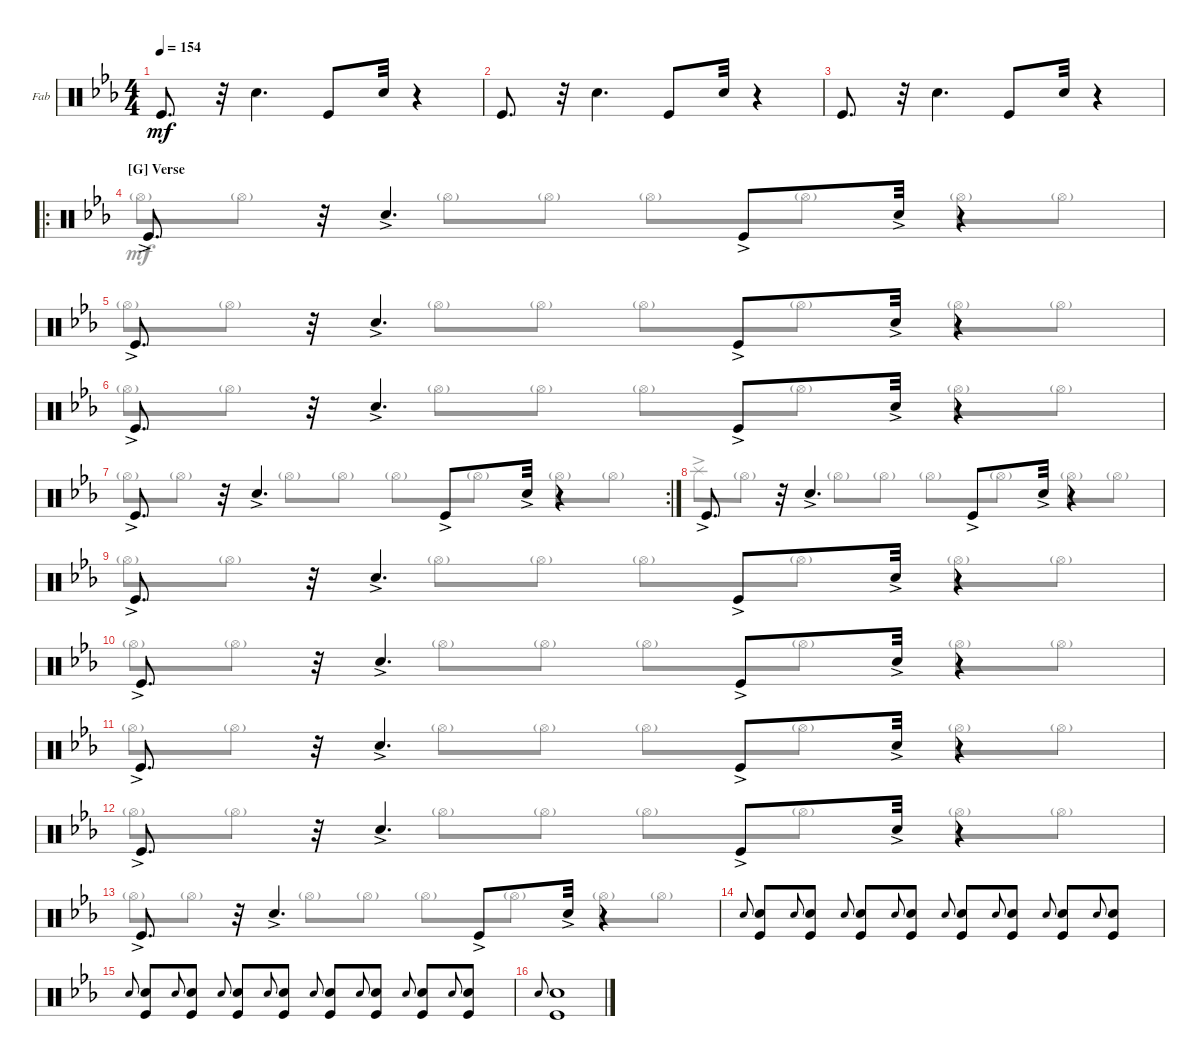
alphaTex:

\defaultSystemsLayout 4
\bracketExtendMode groupsimilarinstruments
\firstSystemTrackNameOrientation horizontal
\otherSystemsTrackNameOrientation horizontal
\track ("Drums" "Fab") {instrument percussion}
\staff {score}
\articulation defaults
\voice
\ts (4 4)
\tempo 154
\clef neutral
\ks eb "Kick (hit)".8{d dy mf}
r.32 "Snare (hit) 2".4{d} "Kick (hit)".8 "Snare (hit) 2".32 r.4 |
"Kick (hit)".8{d} r.32 "Snare (hit) 2".4{d} "Kick (hit)".8 "Snare (hit) 2".32 r.4 |
"Kick (hit)".8{d} r.32 "Snare (hit) 2".4{d} "Kick (hit)".8 "Snare (hit) 2".32 r.4 |
\ro
\section ("G" "Verse")
\scale
0.536768 "Kick (hit)"{ac}.8{d} r.32 "Snare (hit) 2"{ac}.4{d} "Kick (hit)"{ac}.8 "Snare (hit) 2"{ac}.32 r.4 |
\scale
0.463256 "Kick (hit)"{ac}.8{d} r.32 "Snare (hit) 2"{ac}.4{d} "Kick (hit)"{ac}.8 "Snare (hit) 2"{ac}.32 r.4 |
\scale
0.547346 "Kick (hit)"{ac}.8{d} r.32 "Snare (hit) 2"{ac}.4{d} "Kick (hit)"{ac}.8 "Snare (hit) 2"{ac}.32 r.4 |
\rc 2
\scale
0.452775 "Kick (hit)"{ac}.8{d} r.32 "Snare (hit) 2"{ac}.4{d} "Kick (hit)"{ac}.8 "Snare (hit) 2"{ac}.32 r.4 |
\scale
0.54671 "Kick (hit)"{ac}.8{d} r.32 "Snare (hit) 2"{ac}.4{d} "Kick (hit)"{ac}.8 "Snare (hit) 2"{ac}.32 r.4 |
\scale
0.453333 "Kick (hit)"{ac}.8{d} r.32 "Snare (hit) 2"{ac}.4{d} "Kick (hit)"{ac}.8 "Snare (hit) 2"{ac}.32 r.4 |
\scale
0.548185 "Kick (hit)"{ac}.8{d} r.32 "Snare (hit) 2"{ac}.4{d} "Kick (hit)"{ac}.8 "Snare (hit) 2"{ac}.32 r.4 |
\scale
0.451862 "Kick (hit)"{ac}.8{d} r.32 "Snare (hit) 2"{ac}.4{d} "Kick (hit)"{ac}.8 "Snare (hit) 2"{ac}.32 r.4 |
\scale
0.55104 "Kick (hit)"{ac}.8{d} r.32 "Snare (hit) 2"{ac}.4{d} "Kick (hit)"{ac}.8 "Snare (hit) 2"{ac}.32 r.4 |
\scale
0.449011 "Kick (hit)"{ac}.8{d} r.32 "Snare (hit) 2"{ac}.4{d} "Kick (hit)"{ac}.8 "Snare (hit) 2"{ac}.32 r.4 |
"Snare (hit) 2".8{gr onbeat} ("Snare (hit) 2" "Kick (hit)").8 "Snare (hit) 2".8{gr onbeat} ("Snare (hit) 2" "Kick (hit)").8 "Snare (hit) 2".8{gr onbeat} ("Snare (hit) 2" "Kick (hit)").8 "Snare (hit) 2".8{gr onbeat} ("Snare (hit) 2" "Kick (hit)").8 "Snare (hit) 2".8{gr onbeat} ("Snare (hit) 2" "Kick (hit)").8 "Snare (hit) 2".8{gr onbeat} ("Snare (hit) 2" "Kick (hit)").8 "Snare (hit) 2".8{gr onbeat} ("Snare (hit) 2" "Kick (hit)").8 "Snare (hit) 2".8{gr onbeat} ("Snare (hit) 2" "Kick (hit)").8 |
\scale
0.755835 "Snare (hit) 2".8{gr onbeat} ("Snare (hit) 2" "Kick (hit)").8 "Snare (hit) 2".8{gr onbeat} ("Snare (hit) 2" "Kick (hit)").8 "Snare (hit) 2".8{gr onbeat} ("Snare (hit) 2" "Kick (hit)").8 "Snare (hit) 2".8{gr onbeat} ("Snare (hit) 2" "Kick (hit)").8 "Snare (hit) 2".8{gr onbeat} ("Snare (hit) 2" "Kick (hit)").8 "Snare (hit) 2".8{gr onbeat} ("Snare (hit) 2" "Kick (hit)").8 "Snare (hit) 2".8{gr onbeat} ("Snare (hit) 2" "Kick (hit)").8 "Snare (hit) 2".8{gr onbeat} ("Snare (hit) 2" "Kick (hit)").8 |
\scale
0.243788 "Snare (hit) 2".8{gr onbeat} ("Kick (hit)" "Snare (hit) 2").1
\voice
\clef neutral
\ottava regular
\simile none
\ks eb
|
|
|
\scale
0.536768 "Hi-Hat (open)"{g}.8 "Hi-Hat (open)"{g}.8 "Hi-Hat (open)"{g}.8 "Hi-Hat (open)"{g}.8 "Hi-Hat (open)"{g}.8 "Hi-Hat (open)"{g}.8 "Hi-Hat (open)"{g}.8 "Hi-Hat (open)"{g}.8 |
\scale
0.463256 "Hi-Hat (open)"{g}.8 "Hi-Hat (open)"{g}.8 "Hi-Hat (open)"{g}.8 "Hi-Hat (open)"{g}.8 "Hi-Hat (open)"{g}.8 "Hi-Hat (open)"{g}.8 "Hi-Hat (open)"{g}.8 "Hi-Hat (open)"{g}.8 |
\scale
0.547346 "Hi-Hat (open)"{g}.8 "Hi-Hat (open)"{g}.8 "Hi-Hat (open)"{g}.8 "Hi-Hat (open)"{g}.8 "Hi-Hat (open)"{g}.8 "Hi-Hat (open)"{g}.8 "Hi-Hat (open)"{g}.8 "Hi-Hat (open)"{g}.8 |
\scale
0.452775 "Hi-Hat (open)"{g}.8 "Hi-Hat (open)"{g}.8 "Hi-Hat (open)"{g}.8 "Hi-Hat (open)"{g}.8 "Hi-Hat (open)"{g}.8 "Hi-Hat (open)"{g}.8 "Hi-Hat (open)"{g}.8 "Hi-Hat (open)"{g}.8 |
\scale
0.54671 "Splash (hit)"{ac}.8 "Hi-Hat (open)"{g}.8 "Hi-Hat (open)"{g}.8 "Hi-Hat (open)"{g}.8 "Hi-Hat (open)"{g}.8 "Hi-Hat (open)"{g}.8 "Hi-Hat (open)"{g}.8 "Hi-Hat (open)"{g}.8 |
\scale
0.453333 "Hi-Hat (open)"{g}.8 "Hi-Hat (open)"{g}.8 "Hi-Hat (open)"{g}.8 "Hi-Hat (open)"{g}.8 "Hi-Hat (open)"{g}.8 "Hi-Hat (open)"{g}.8 "Hi-Hat (open)"{g}.8 "Hi-Hat (open)"{g}.8 |
\scale
0.548185 "Hi-Hat (open)"{g}.8 "Hi-Hat (open)"{g}.8 "Hi-Hat (open)"{g}.8 "Hi-Hat (open)"{g}.8 "Hi-Hat (open)"{g}.8 "Hi-Hat (open)"{g}.8 "Hi-Hat (open)"{g}.8 "Hi-Hat (open)"{g}.8 |
\scale
0.451862 "Hi-Hat (open)"{g}.8 "Hi-Hat (open)"{g}.8 "Hi-Hat (open)"{g}.8 "Hi-Hat (open)"{g}.8 "Hi-Hat (open)"{g}.8 "Hi-Hat (open)"{g}.8 "Hi-Hat (open)"{g}.8 "Hi-Hat (open)"{g}.8 |
\scale
0.55104 "Hi-Hat (open)"{g}.8 "Hi-Hat (open)"{g}.8 "Hi-Hat (open)"{g}.8 "Hi-Hat (open)"{g}.8 "Hi-Hat (open)"{g}.8 "Hi-Hat (open)"{g}.8 "Hi-Hat (open)"{g}.8 "Hi-Hat (open)"{g}.8 |
\scale
0.449011 "Hi-Hat (open)"{g}.8 "Hi-Hat (open)"{g}.8 "Hi-Hat (open)"{g}.8 "Hi-Hat (open)"{g}.8 "Hi-Hat (open)"{g}.8 "Hi-Hat (open)"{g}.8 "Hi-Hat (open)"{g}.8 "Hi-Hat (open)"{g}.8 |
|
\scale
0.755835 |
\scale
0.243788
